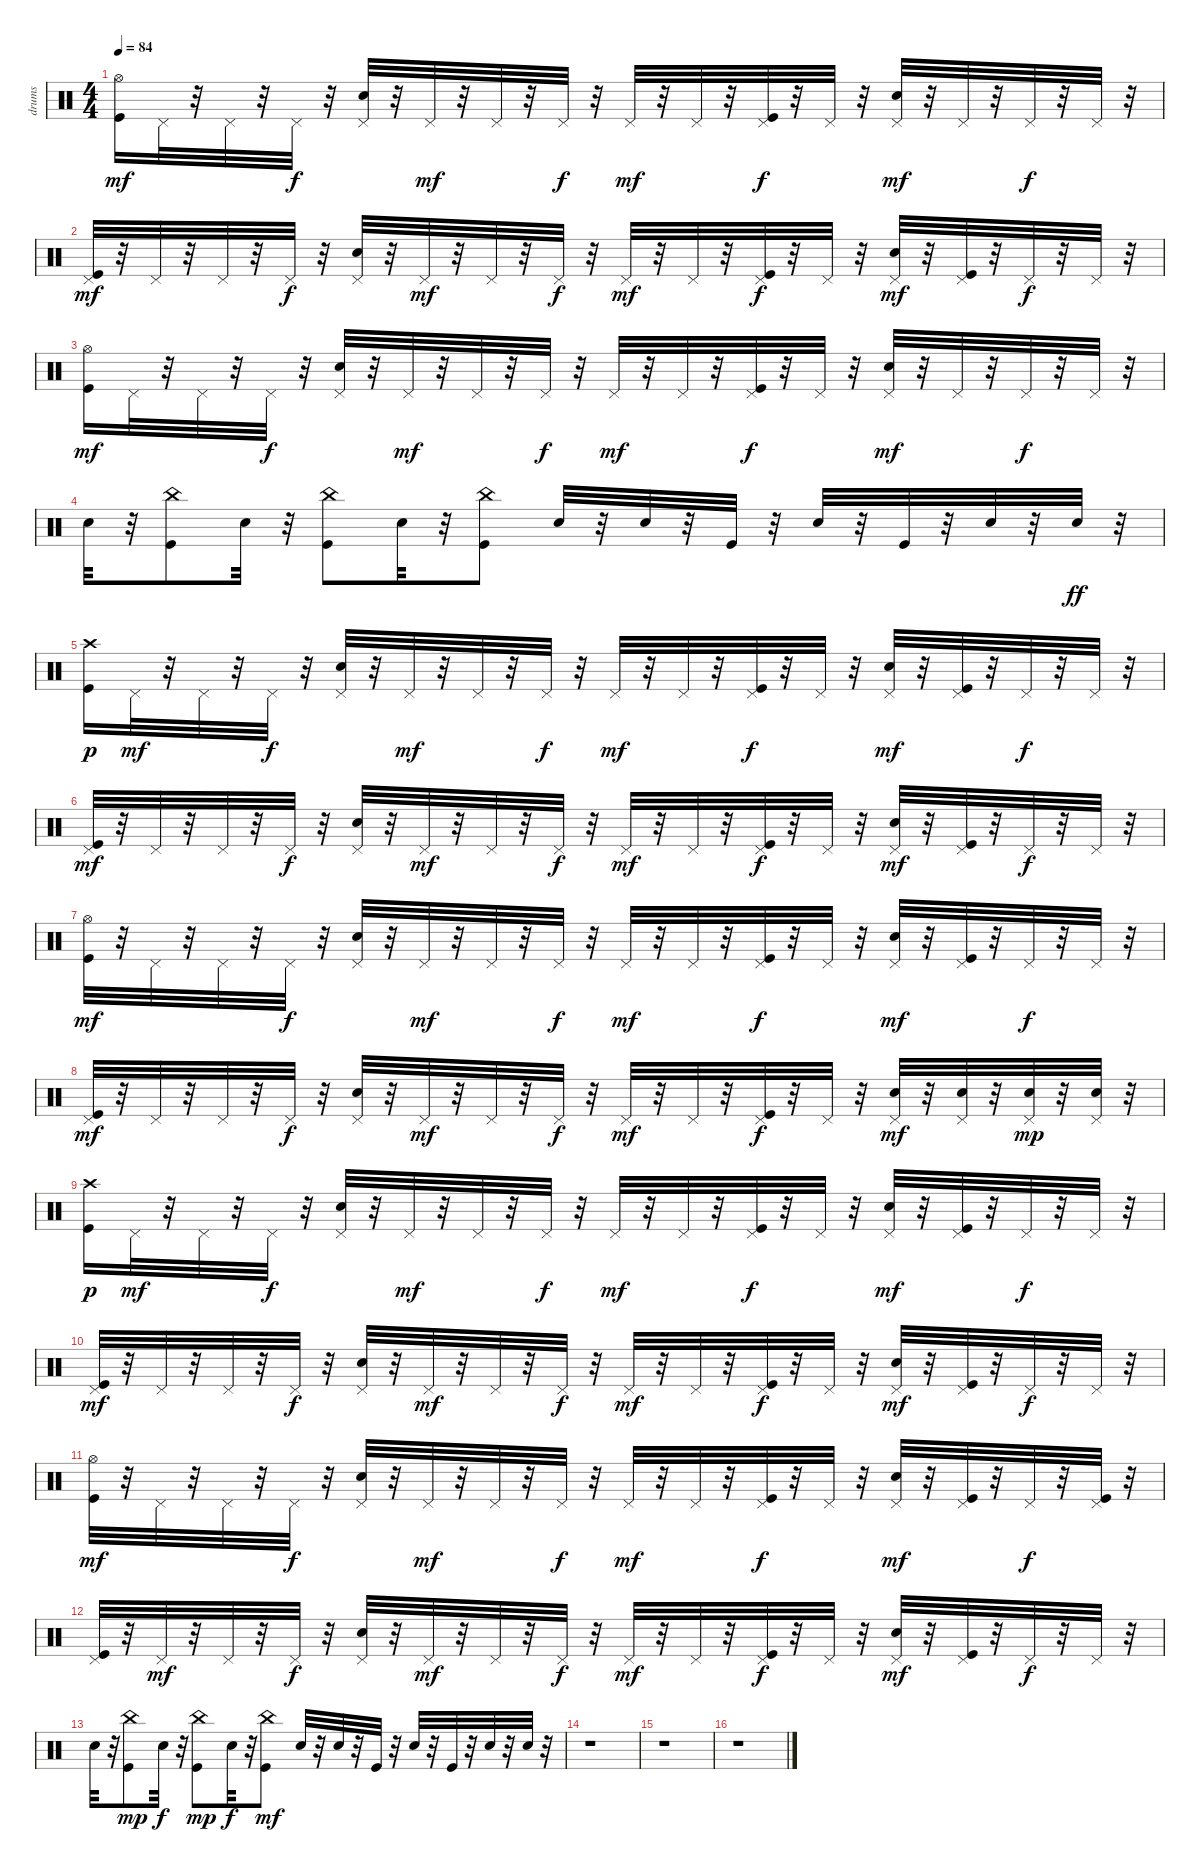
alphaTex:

\track ("drums" "drums") {instrument percussion}
\staff {score}
\articulation defaults
\ts (4 4)
\tempo 84
\clef neutral
\ks c
("Kick (hit)" "Hi-Hat (open)").16{dy mf} "Pedal Hi-Hat (hit)".32 r.32 "Pedal Hi-Hat (hit)".32 r.32 "Pedal Hi-Hat (hit)".32{dy f} r.32 ("Snare (hit) 2" "Pedal Hi-Hat (hit)").32 r.32 "Pedal Hi-Hat (hit)".32{dy mf} r.32 "Pedal Hi-Hat (hit)".32 r.32 "Pedal Hi-Hat (hit)".32{dy f} r.32 "Pedal Hi-Hat (hit)".32{dy mf} r.32 "Pedal Hi-Hat (hit)".32 r.32 ("Kick (hit)" "Pedal Hi-Hat (hit)").32{dy f} r.32 "Pedal Hi-Hat (hit)".32 r.32 ("Snare (hit) 2" "Pedal Hi-Hat (hit)").32{dy mf} r.32 "Pedal Hi-Hat (hit)".32 r.32 "Pedal Hi-Hat (hit)".32{dy f} r.32 "Pedal Hi-Hat (hit)".32 r.32 |
("Kick (hit)" "Pedal Hi-Hat (hit)").32{dy mf} r.32 "Pedal Hi-Hat (hit)".32 r.32 "Pedal Hi-Hat (hit)".32 r.32 "Pedal Hi-Hat (hit)".32{dy f} r.32 ("Snare (hit) 2" "Pedal Hi-Hat (hit)").32 r.32 "Pedal Hi-Hat (hit)".32{dy mf} r.32 "Pedal Hi-Hat (hit)".32 r.32 "Pedal Hi-Hat (hit)".32{dy f} r.32 "Pedal Hi-Hat (hit)".32{dy mf} r.32 "Pedal Hi-Hat (hit)".32 r.32 ("Kick (hit)" "Pedal Hi-Hat (hit)").32{dy f} r.32 "Pedal Hi-Hat (hit)".32 r.32 ("Snare (hit) 2" "Pedal Hi-Hat (hit)").32{dy mf} r.32 ("Kick (hit)" "Pedal Hi-Hat (hit)").32 r.32 "Pedal Hi-Hat (hit)".32{dy f} r.32 "Pedal Hi-Hat (hit)".32 r.32 |
("Kick (hit)" "Hi-Hat (open)").16{dy mf} "Pedal Hi-Hat (hit)".32 r.32 "Pedal Hi-Hat (hit)".32 r.32 "Pedal Hi-Hat (hit)".32{dy f} r.32 ("Snare (hit) 2" "Pedal Hi-Hat (hit)").32 r.32 "Pedal Hi-Hat (hit)".32{dy mf} r.32 "Pedal Hi-Hat (hit)".32 r.32 "Pedal Hi-Hat (hit)".32{dy f} r.32 "Pedal Hi-Hat (hit)".32{dy mf} r.32 "Pedal Hi-Hat (hit)".32 r.32 ("Kick (hit)" "Pedal Hi-Hat (hit)").32{dy f} r.32 "Pedal Hi-Hat (hit)".32 r.32 ("Snare (hit) 2" "Pedal Hi-Hat (hit)").32{dy mf} r.32 "Pedal Hi-Hat (hit)".32 r.32 "Pedal Hi-Hat (hit)".32{dy f} r.32 "Pedal Hi-Hat (hit)".32 r.32 |
"Snare (hit) 2".32 r.32 ("Kick (hit)" "China (hit)").8 "Snare (hit) 2".32 r.32 ("Kick (hit)" "China (hit)").8 "Snare (hit) 2".32 r.32 ("Kick (hit)" "China (hit)").8 "Snare (hit) 2".32 r.32 "Snare (hit) 2".32 r.32 "Kick (hit)".32 r.32 "Snare (hit) 2".32 r.32 "Kick (hit)".32 r.32 "Snare (hit) 2".32 r.32 "Snare (hit) 2".32{dy ff} r.32 |
("Kick (hit)" "Crash high (hit)").16{dy p} "Pedal Hi-Hat (hit)".32{dy mf} r.32 "Pedal Hi-Hat (hit)".32 r.32 "Pedal Hi-Hat (hit)".32{dy f} r.32 ("Snare (hit) 2" "Pedal Hi-Hat (hit)").32 r.32 "Pedal Hi-Hat (hit)".32{dy mf} r.32 "Pedal Hi-Hat (hit)".32 r.32 "Pedal Hi-Hat (hit)".32{dy f} r.32 "Pedal Hi-Hat (hit)".32{dy mf} r.32 "Pedal Hi-Hat (hit)".32 r.32 ("Kick (hit)" "Pedal Hi-Hat (hit)").32{dy f} r.32 "Pedal Hi-Hat (hit)".32 r.32 ("Snare (hit) 2" "Pedal Hi-Hat (hit)").32{dy mf} r.32 ("Kick (hit)" "Pedal Hi-Hat (hit)").32 r.32 "Pedal Hi-Hat (hit)".32{dy f} r.32 "Pedal Hi-Hat (hit)".32 r.32 |
("Kick (hit)" "Pedal Hi-Hat (hit)").32{dy mf} r.32 "Pedal Hi-Hat (hit)".32 r.32 "Pedal Hi-Hat (hit)".32 r.32 "Pedal Hi-Hat (hit)".32{dy f} r.32 ("Snare (hit) 2" "Pedal Hi-Hat (hit)").32 r.32 "Pedal Hi-Hat (hit)".32{dy mf} r.32 "Pedal Hi-Hat (hit)".32 r.32 "Pedal Hi-Hat (hit)".32{dy f} r.32 "Pedal Hi-Hat (hit)".32{dy mf} r.32 "Pedal Hi-Hat (hit)".32 r.32 ("Kick (hit)" "Pedal Hi-Hat (hit)").32{dy f} r.32 "Pedal Hi-Hat (hit)".32 r.32 ("Snare (hit) 2" "Pedal Hi-Hat (hit)").32{dy mf} r.32 ("Kick (hit)" "Pedal Hi-Hat (hit)").32 r.32 "Pedal Hi-Hat (hit)".32{dy f} r.32 "Pedal Hi-Hat (hit)".32 r.32 |
("Kick (hit)" "Hi-Hat (open)").32{dy mf} r.32 "Pedal Hi-Hat (hit)".32 r.32 "Pedal Hi-Hat (hit)".32 r.32 "Pedal Hi-Hat (hit)".32{dy f} r.32 ("Snare (hit) 2" "Pedal Hi-Hat (hit)").32 r.32 "Pedal Hi-Hat (hit)".32{dy mf} r.32 "Pedal Hi-Hat (hit)".32 r.32 "Pedal Hi-Hat (hit)".32{dy f} r.32 "Pedal Hi-Hat (hit)".32{dy mf} r.32 "Pedal Hi-Hat (hit)".32 r.32 ("Kick (hit)" "Pedal Hi-Hat (hit)").32{dy f} r.32 "Pedal Hi-Hat (hit)".32 r.32 ("Snare (hit) 2" "Pedal Hi-Hat (hit)").32{dy mf} r.32 ("Kick (hit)" "Pedal Hi-Hat (hit)").32 r.32 "Pedal Hi-Hat (hit)".32{dy f} r.32 "Pedal Hi-Hat (hit)".32 r.32 |
("Kick (hit)" "Pedal Hi-Hat (hit)").32{dy mf} r.32 "Pedal Hi-Hat (hit)".32 r.32 "Pedal Hi-Hat (hit)".32 r.32 "Pedal Hi-Hat (hit)".32{dy f} r.32 ("Snare (hit) 2" "Pedal Hi-Hat (hit)").32 r.32 "Pedal Hi-Hat (hit)".32{dy mf} r.32 "Pedal Hi-Hat (hit)".32 r.32 "Pedal Hi-Hat (hit)".32{dy f} r.32 "Pedal Hi-Hat (hit)".32{dy mf} r.32 "Pedal Hi-Hat (hit)".32 r.32 ("Kick (hit)" "Pedal Hi-Hat (hit)").32{dy f} r.32 "Pedal Hi-Hat (hit)".32 r.32 ("Snare (hit) 2" "Pedal Hi-Hat (hit)").32{dy mf} r.32 ("Snare (hit) 2" "Pedal Hi-Hat (hit)").32 r.32 ("Snare (hit) 2" "Pedal Hi-Hat (hit)").32{dy mp} r.32 ("Snare (hit) 2" "Pedal Hi-Hat (hit)").32 r.32 |
("Kick (hit)" "Crash high (hit)").16{dy p} "Pedal Hi-Hat (hit)".32{dy mf} r.32 "Pedal Hi-Hat (hit)".32 r.32 "Pedal Hi-Hat (hit)".32{dy f} r.32 ("Snare (hit) 2" "Pedal Hi-Hat (hit)").32 r.32 "Pedal Hi-Hat (hit)".32{dy mf} r.32 "Pedal Hi-Hat (hit)".32 r.32 "Pedal Hi-Hat (hit)".32{dy f} r.32 "Pedal Hi-Hat (hit)".32{dy mf} r.32 "Pedal Hi-Hat (hit)".32 r.32 ("Kick (hit)" "Pedal Hi-Hat (hit)").32{dy f} r.32 "Pedal Hi-Hat (hit)".32 r.32 ("Snare (hit) 2" "Pedal Hi-Hat (hit)").32{dy mf} r.32 ("Kick (hit)" "Pedal Hi-Hat (hit)").32 r.32 "Pedal Hi-Hat (hit)".32{dy f} r.32 "Pedal Hi-Hat (hit)".32 r.32 |
("Kick (hit)" "Pedal Hi-Hat (hit)").32{dy mf} r.32 "Pedal Hi-Hat (hit)".32 r.32 "Pedal Hi-Hat (hit)".32 r.32 "Pedal Hi-Hat (hit)".32{dy f} r.32 ("Snare (hit) 2" "Pedal Hi-Hat (hit)").32 r.32 "Pedal Hi-Hat (hit)".32{dy mf} r.32 "Pedal Hi-Hat (hit)".32 r.32 "Pedal Hi-Hat (hit)".32{dy f} r.32 "Pedal Hi-Hat (hit)".32{dy mf} r.32 "Pedal Hi-Hat (hit)".32 r.32 ("Kick (hit)" "Pedal Hi-Hat (hit)").32{dy f} r.32 "Pedal Hi-Hat (hit)".32 r.32 ("Snare (hit) 2" "Pedal Hi-Hat (hit)").32{dy mf} r.32 ("Kick (hit)" "Pedal Hi-Hat (hit)").32 r.32 "Pedal Hi-Hat (hit)".32{dy f} r.32 "Pedal Hi-Hat (hit)".32 r.32 |
("Kick (hit)" "Hi-Hat (open)").32{dy mf} r.32 "Pedal Hi-Hat (hit)".32 r.32 "Pedal Hi-Hat (hit)".32 r.32 "Pedal Hi-Hat (hit)".32{dy f} r.32 ("Snare (hit) 2" "Pedal Hi-Hat (hit)").32 r.32 "Pedal Hi-Hat (hit)".32{dy mf} r.32 "Pedal Hi-Hat (hit)".32 r.32 "Pedal Hi-Hat (hit)".32{dy f} r.32 "Pedal Hi-Hat (hit)".32{dy mf} r.32 "Pedal Hi-Hat (hit)".32 r.32 ("Kick (hit)" "Pedal Hi-Hat (hit)").32{dy f} r.32 "Pedal Hi-Hat (hit)".32 r.32 ("Snare (hit) 2" "Pedal Hi-Hat (hit)").32{dy mf} r.32 ("Kick (hit)" "Pedal Hi-Hat (hit)").32 r.32 "Pedal Hi-Hat (hit)".32{dy f} r.32 ("Kick (hit)" "Pedal Hi-Hat (hit)").32 r.32 |
("Kick (hit)" "Pedal Hi-Hat (hit)").32 r.32 "Pedal Hi-Hat (hit)".32{dy mf} r.32 "Pedal Hi-Hat (hit)".32 r.32 "Pedal Hi-Hat (hit)".32{dy f} r.32 ("Snare (hit) 2" "Pedal Hi-Hat (hit)").32 r.32 "Pedal Hi-Hat (hit)".32{dy mf} r.32 "Pedal Hi-Hat (hit)".32 r.32 "Pedal Hi-Hat (hit)".32{dy f} r.32 "Pedal Hi-Hat (hit)".32{dy mf} r.32 "Pedal Hi-Hat (hit)".32 r.32 ("Kick (hit)" "Pedal Hi-Hat (hit)").32{dy f} r.32 "Pedal Hi-Hat (hit)".32 r.32 ("Snare (hit) 2" "Pedal Hi-Hat (hit)").32{dy mf} r.32 ("Kick (hit)" "Pedal Hi-Hat (hit)").32 r.32 "Pedal Hi-Hat (hit)".32{dy f} r.32 "Pedal Hi-Hat (hit)".32 r.32 |
"Snare (hit) 2".32 r.32 ("Kick (hit)" "China (hit)").8{dy mp} "Snare (hit) 2".32{dy f} r.32 ("Kick (hit)" "China (hit)").8{dy mp} "Snare (hit) 2".32{dy f} r.32 ("Kick (hit)" "China (hit)").8{dy mf} "Snare (hit) 2".32 r.32 "Snare (hit) 2".32 r.32 "Kick (hit)".32 r.32 "Snare (hit) 2".32 r.32 "Kick (hit)".32 r.32 "Snare (hit) 2".32 r.32 "Snare (hit) 2".32 r.32 |
r.1 |
r.1 |
r.1
